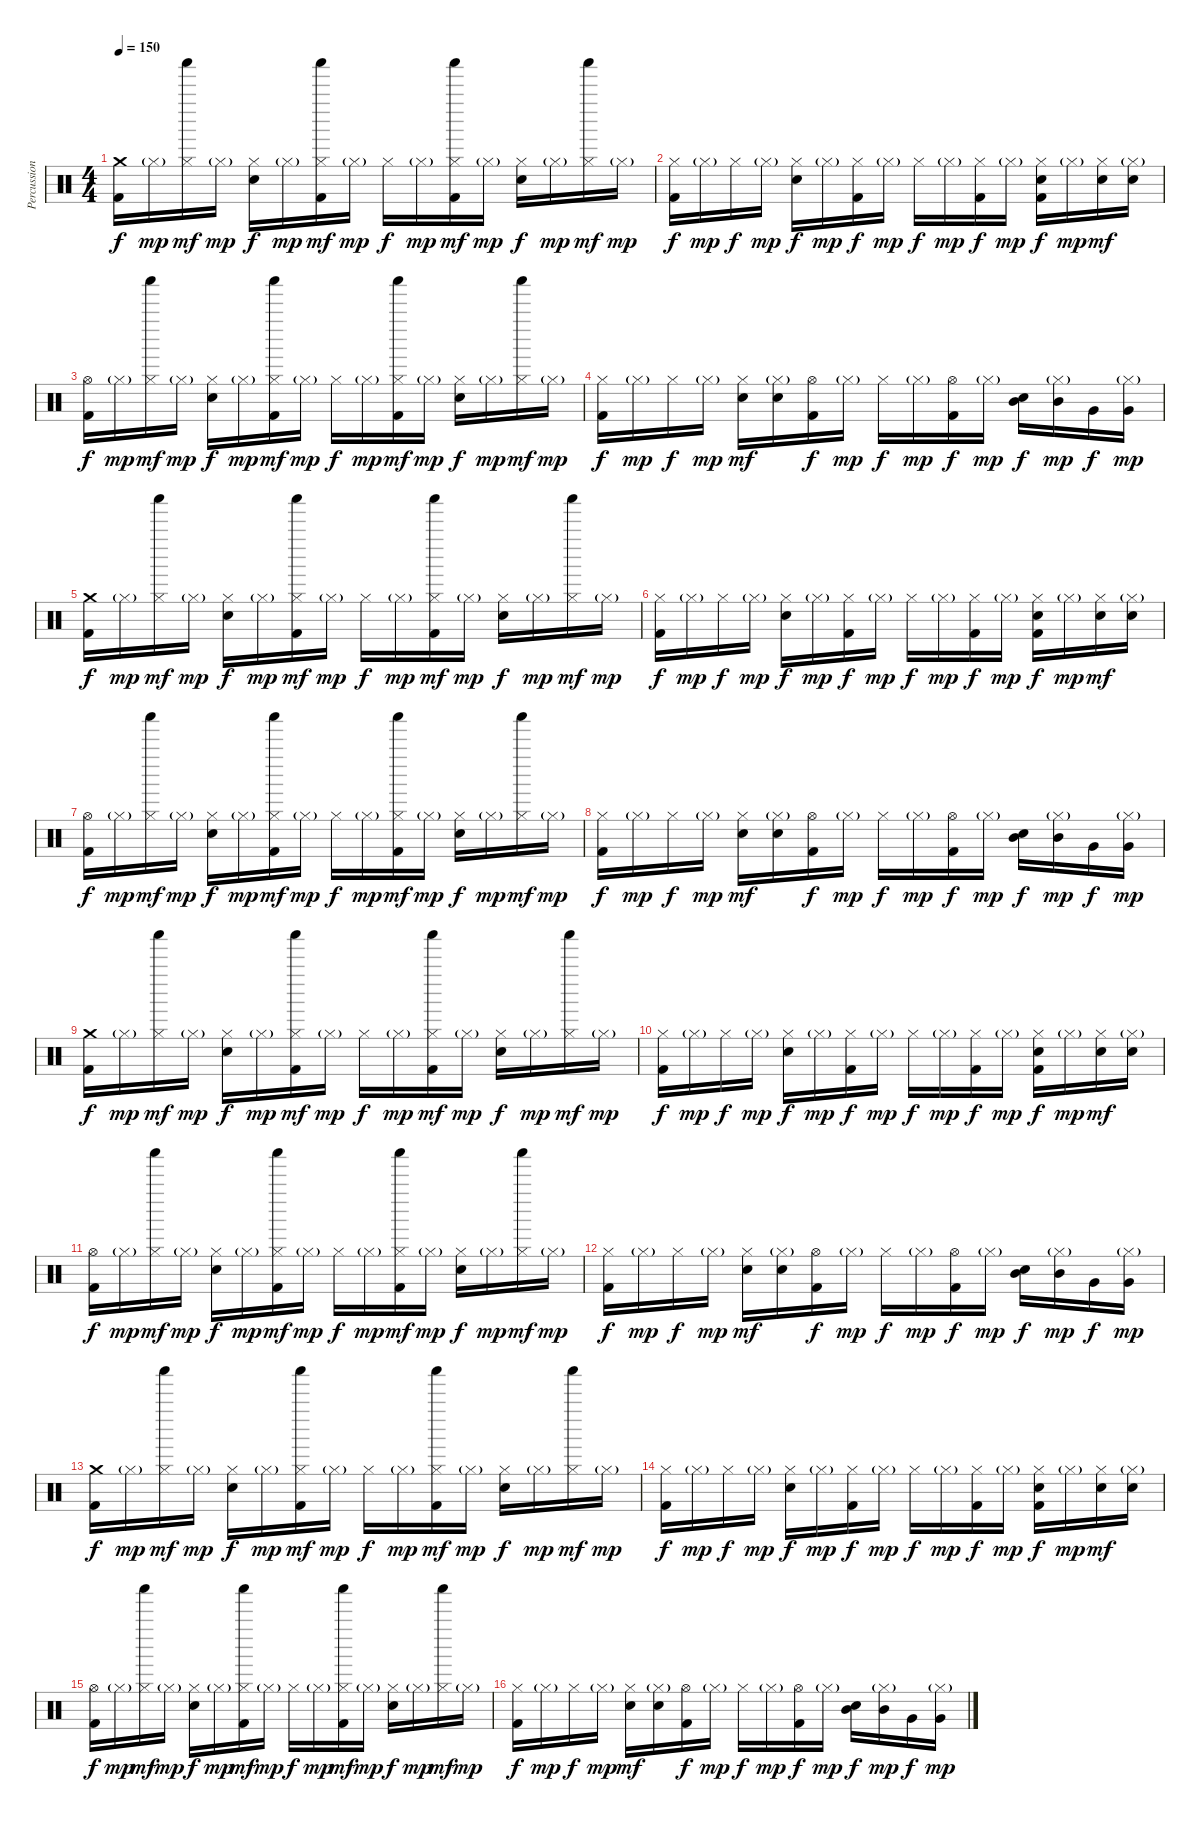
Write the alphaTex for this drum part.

\track ("Percussion" "Percussion") {instrument percussion}
\staff {score}
\articulation defaults
\ts (4 4)
\tempo 150
\clef neutral
\ks c
("Crash medium (hit)" "Kick (hit) 2").16{dy f} "Hi-Hat (closed)"{g}.16{dy mp} ("Hi-Hat (closed)" "Shaker (hit)").16{dy mf} "Hi-Hat (closed)"{g}.16{dy mp} ("Hi-Hat (closed)" "Electric Snare (hit)").16{dy f} "Hi-Hat (closed)"{g}.16{dy mp} ("Hi-Hat (closed)" "Shaker (hit)" "Kick (hit) 2").16{dy mf} "Hi-Hat (closed)"{g}.16{dy mp} "Hi-Hat (closed)".16{dy f} "Hi-Hat (closed)"{g}.16{dy mp} ("Hi-Hat (closed)" "Shaker (hit)" "Kick (hit) 2").16{dy mf} "Hi-Hat (closed)"{g}.16{dy mp} ("Hi-Hat (closed)" "Electric Snare (hit)").16{dy f} "Hi-Hat (closed)"{g}.16{dy mp} ("Hi-Hat (closed)" "Shaker (hit)").16{dy mf} "Hi-Hat (closed)"{g}.16{dy mp} |
("Hi-Hat (closed)" "Kick (hit) 2").16{dy f} "Hi-Hat (closed)"{g}.16{dy mp} "Hi-Hat (closed)".16{dy f} "Hi-Hat (closed)"{g}.16{dy mp} ("Hi-Hat (closed)" "Electric Snare (hit)").16{dy f} "Hi-Hat (closed)"{g}.16{dy mp} ("Hi-Hat (closed)" "Kick (hit) 2").16{dy f} "Hi-Hat (closed)"{g}.16{dy mp} "Hi-Hat (closed)".16{dy f} "Hi-Hat (closed)"{g}.16{dy mp} ("Hi-Hat (closed)" "Kick (hit) 2").16{dy f} "Hi-Hat (closed)"{g}.16{dy mp} ("Hi-Hat (closed)" "Electric Snare (hit)" "Kick (hit) 2").16{dy f} "Hi-Hat (closed)"{g}.16{dy mp} ("Hi-Hat (closed)" "Electric Snare (hit)").16{dy mf} ("Hi-Hat (closed)"{g} "Electric Snare (hit)").16 |
("Hi-Hat (open)" "Kick (hit) 2").16{dy f} "Hi-Hat (closed)"{g}.16{dy mp} ("Hi-Hat (closed)" "Shaker (hit)").16{dy mf} "Hi-Hat (closed)"{g}.16{dy mp} ("Hi-Hat (closed)" "Electric Snare (hit)").16{dy f} "Hi-Hat (closed)"{g}.16{dy mp} ("Hi-Hat (closed)" "Shaker (hit)" "Kick (hit) 2").16{dy mf} "Hi-Hat (closed)"{g}.16{dy mp} "Hi-Hat (closed)".16{dy f} "Hi-Hat (closed)"{g}.16{dy mp} ("Hi-Hat (closed)" "Shaker (hit)" "Kick (hit) 2").16{dy mf} "Hi-Hat (closed)"{g}.16{dy mp} ("Hi-Hat (closed)" "Electric Snare (hit)").16{dy f} "Hi-Hat (closed)"{g}.16{dy mp} ("Hi-Hat (closed)" "Shaker (hit)").16{dy mf} "Hi-Hat (closed)"{g}.16{dy mp} |
("Hi-Hat (closed)" "Kick (hit) 2").16{dy f} "Hi-Hat (closed)"{g}.16{dy mp} "Hi-Hat (closed)".16{dy f} "Hi-Hat (closed)"{g}.16{dy mp} ("Hi-Hat (closed)" "Electric Snare (hit)").16{dy mf} ("Hi-Hat (closed)"{g} "Electric Snare (hit)").16 ("Hi-Hat (open)" "Kick (hit) 2").16{dy f} "Hi-Hat (closed)"{g}.16{dy mp} "Hi-Hat (closed)".16{dy f} "Hi-Hat (closed)"{g}.16{dy mp} ("Hi-Hat (open)" "Kick (hit) 2").16{dy f} "Hi-Hat (closed)"{g}.16{dy mp} ("Mid Tom (hit)" "Electric Snare (hit)").16{dy f} ("Hi-Hat (closed)"{g} "Mid Tom (hit)").16{dy mp} "Very Low Tom (hit)".16{dy f} ("Hi-Hat (closed)"{g} "Very Low Tom (hit)").16{dy mp} |
("Crash medium (hit)" "Kick (hit) 2").16{dy f} "Hi-Hat (closed)"{g}.16{dy mp} ("Hi-Hat (closed)" "Shaker (hit)").16{dy mf} "Hi-Hat (closed)"{g}.16{dy mp} ("Hi-Hat (closed)" "Electric Snare (hit)").16{dy f} "Hi-Hat (closed)"{g}.16{dy mp} ("Hi-Hat (closed)" "Shaker (hit)" "Kick (hit) 2").16{dy mf} "Hi-Hat (closed)"{g}.16{dy mp} "Hi-Hat (closed)".16{dy f} "Hi-Hat (closed)"{g}.16{dy mp} ("Hi-Hat (closed)" "Shaker (hit)" "Kick (hit) 2").16{dy mf} "Hi-Hat (closed)"{g}.16{dy mp} ("Hi-Hat (closed)" "Electric Snare (hit)").16{dy f} "Hi-Hat (closed)"{g}.16{dy mp} ("Hi-Hat (closed)" "Shaker (hit)").16{dy mf} "Hi-Hat (closed)"{g}.16{dy mp} |
("Hi-Hat (closed)" "Kick (hit) 2").16{dy f} "Hi-Hat (closed)"{g}.16{dy mp} "Hi-Hat (closed)".16{dy f} "Hi-Hat (closed)"{g}.16{dy mp} ("Hi-Hat (closed)" "Electric Snare (hit)").16{dy f} "Hi-Hat (closed)"{g}.16{dy mp} ("Hi-Hat (closed)" "Kick (hit) 2").16{dy f} "Hi-Hat (closed)"{g}.16{dy mp} "Hi-Hat (closed)".16{dy f} "Hi-Hat (closed)"{g}.16{dy mp} ("Hi-Hat (closed)" "Kick (hit) 2").16{dy f} "Hi-Hat (closed)"{g}.16{dy mp} ("Hi-Hat (closed)" "Electric Snare (hit)" "Kick (hit) 2").16{dy f} "Hi-Hat (closed)"{g}.16{dy mp} ("Hi-Hat (closed)" "Electric Snare (hit)").16{dy mf} ("Hi-Hat (closed)"{g} "Electric Snare (hit)").16 |
("Hi-Hat (open)" "Kick (hit) 2").16{dy f} "Hi-Hat (closed)"{g}.16{dy mp} ("Hi-Hat (closed)" "Shaker (hit)").16{dy mf} "Hi-Hat (closed)"{g}.16{dy mp} ("Hi-Hat (closed)" "Electric Snare (hit)").16{dy f} "Hi-Hat (closed)"{g}.16{dy mp} ("Hi-Hat (closed)" "Shaker (hit)" "Kick (hit) 2").16{dy mf} "Hi-Hat (closed)"{g}.16{dy mp} "Hi-Hat (closed)".16{dy f} "Hi-Hat (closed)"{g}.16{dy mp} ("Hi-Hat (closed)" "Shaker (hit)" "Kick (hit) 2").16{dy mf} "Hi-Hat (closed)"{g}.16{dy mp} ("Hi-Hat (closed)" "Electric Snare (hit)").16{dy f} "Hi-Hat (closed)"{g}.16{dy mp} ("Hi-Hat (closed)" "Shaker (hit)").16{dy mf} "Hi-Hat (closed)"{g}.16{dy mp} |
("Hi-Hat (closed)" "Kick (hit) 2").16{dy f} "Hi-Hat (closed)"{g}.16{dy mp} "Hi-Hat (closed)".16{dy f} "Hi-Hat (closed)"{g}.16{dy mp} ("Hi-Hat (closed)" "Electric Snare (hit)").16{dy mf} ("Hi-Hat (closed)"{g} "Electric Snare (hit)").16 ("Hi-Hat (open)" "Kick (hit) 2").16{dy f} "Hi-Hat (closed)"{g}.16{dy mp} "Hi-Hat (closed)".16{dy f} "Hi-Hat (closed)"{g}.16{dy mp} ("Hi-Hat (open)" "Kick (hit) 2").16{dy f} "Hi-Hat (closed)"{g}.16{dy mp} ("Mid Tom (hit)" "Electric Snare (hit)").16{dy f} ("Hi-Hat (closed)"{g} "Mid Tom (hit)").16{dy mp} "Very Low Tom (hit)".16{dy f} ("Hi-Hat (closed)"{g} "Very Low Tom (hit)").16{dy mp} |
("Crash medium (hit)" "Kick (hit) 2").16{dy f} "Hi-Hat (closed)"{g}.16{dy mp} ("Hi-Hat (closed)" "Shaker (hit)").16{dy mf} "Hi-Hat (closed)"{g}.16{dy mp} ("Hi-Hat (closed)" "Electric Snare (hit)").16{dy f} "Hi-Hat (closed)"{g}.16{dy mp} ("Hi-Hat (closed)" "Shaker (hit)" "Kick (hit) 2").16{dy mf} "Hi-Hat (closed)"{g}.16{dy mp} "Hi-Hat (closed)".16{dy f} "Hi-Hat (closed)"{g}.16{dy mp} ("Hi-Hat (closed)" "Shaker (hit)" "Kick (hit) 2").16{dy mf} "Hi-Hat (closed)"{g}.16{dy mp} ("Hi-Hat (closed)" "Electric Snare (hit)").16{dy f} "Hi-Hat (closed)"{g}.16{dy mp} ("Hi-Hat (closed)" "Shaker (hit)").16{dy mf} "Hi-Hat (closed)"{g}.16{dy mp} |
("Hi-Hat (closed)" "Kick (hit) 2").16{dy f} "Hi-Hat (closed)"{g}.16{dy mp} "Hi-Hat (closed)".16{dy f} "Hi-Hat (closed)"{g}.16{dy mp} ("Hi-Hat (closed)" "Electric Snare (hit)").16{dy f} "Hi-Hat (closed)"{g}.16{dy mp} ("Hi-Hat (closed)" "Kick (hit) 2").16{dy f} "Hi-Hat (closed)"{g}.16{dy mp} "Hi-Hat (closed)".16{dy f} "Hi-Hat (closed)"{g}.16{dy mp} ("Hi-Hat (closed)" "Kick (hit) 2").16{dy f} "Hi-Hat (closed)"{g}.16{dy mp} ("Hi-Hat (closed)" "Electric Snare (hit)" "Kick (hit) 2").16{dy f} "Hi-Hat (closed)"{g}.16{dy mp} ("Hi-Hat (closed)" "Electric Snare (hit)").16{dy mf} ("Hi-Hat (closed)"{g} "Electric Snare (hit)").16 |
("Hi-Hat (open)" "Kick (hit) 2").16{dy f} "Hi-Hat (closed)"{g}.16{dy mp} ("Hi-Hat (closed)" "Shaker (hit)").16{dy mf} "Hi-Hat (closed)"{g}.16{dy mp} ("Hi-Hat (closed)" "Electric Snare (hit)").16{dy f} "Hi-Hat (closed)"{g}.16{dy mp} ("Hi-Hat (closed)" "Shaker (hit)" "Kick (hit) 2").16{dy mf} "Hi-Hat (closed)"{g}.16{dy mp} "Hi-Hat (closed)".16{dy f} "Hi-Hat (closed)"{g}.16{dy mp} ("Hi-Hat (closed)" "Shaker (hit)" "Kick (hit) 2").16{dy mf} "Hi-Hat (closed)"{g}.16{dy mp} ("Hi-Hat (closed)" "Electric Snare (hit)").16{dy f} "Hi-Hat (closed)"{g}.16{dy mp} ("Hi-Hat (closed)" "Shaker (hit)").16{dy mf} "Hi-Hat (closed)"{g}.16{dy mp} |
("Hi-Hat (closed)" "Kick (hit) 2").16{dy f} "Hi-Hat (closed)"{g}.16{dy mp} "Hi-Hat (closed)".16{dy f} "Hi-Hat (closed)"{g}.16{dy mp} ("Hi-Hat (closed)" "Electric Snare (hit)").16{dy mf} ("Hi-Hat (closed)"{g} "Electric Snare (hit)").16 ("Hi-Hat (open)" "Kick (hit) 2").16{dy f} "Hi-Hat (closed)"{g}.16{dy mp} "Hi-Hat (closed)".16{dy f} "Hi-Hat (closed)"{g}.16{dy mp} ("Hi-Hat (open)" "Kick (hit) 2").16{dy f} "Hi-Hat (closed)"{g}.16{dy mp} ("Mid Tom (hit)" "Electric Snare (hit)").16{dy f} ("Hi-Hat (closed)"{g} "Mid Tom (hit)").16{dy mp} "Very Low Tom (hit)".16{dy f} ("Hi-Hat (closed)"{g} "Very Low Tom (hit)").16{dy mp} |
("Crash medium (hit)" "Kick (hit) 2").16{dy f} "Hi-Hat (closed)"{g}.16{dy mp} ("Hi-Hat (closed)" "Shaker (hit)").16{dy mf} "Hi-Hat (closed)"{g}.16{dy mp} ("Hi-Hat (closed)" "Electric Snare (hit)").16{dy f} "Hi-Hat (closed)"{g}.16{dy mp} ("Hi-Hat (closed)" "Shaker (hit)" "Kick (hit) 2").16{dy mf} "Hi-Hat (closed)"{g}.16{dy mp} "Hi-Hat (closed)".16{dy f} "Hi-Hat (closed)"{g}.16{dy mp} ("Hi-Hat (closed)" "Shaker (hit)" "Kick (hit) 2").16{dy mf} "Hi-Hat (closed)"{g}.16{dy mp} ("Hi-Hat (closed)" "Electric Snare (hit)").16{dy f} "Hi-Hat (closed)"{g}.16{dy mp} ("Hi-Hat (closed)" "Shaker (hit)").16{dy mf} "Hi-Hat (closed)"{g}.16{dy mp} |
("Hi-Hat (closed)" "Kick (hit) 2").16{dy f} "Hi-Hat (closed)"{g}.16{dy mp} "Hi-Hat (closed)".16{dy f} "Hi-Hat (closed)"{g}.16{dy mp} ("Hi-Hat (closed)" "Electric Snare (hit)").16{dy f} "Hi-Hat (closed)"{g}.16{dy mp} ("Hi-Hat (closed)" "Kick (hit) 2").16{dy f} "Hi-Hat (closed)"{g}.16{dy mp} "Hi-Hat (closed)".16{dy f} "Hi-Hat (closed)"{g}.16{dy mp} ("Hi-Hat (closed)" "Kick (hit) 2").16{dy f} "Hi-Hat (closed)"{g}.16{dy mp} ("Hi-Hat (closed)" "Electric Snare (hit)" "Kick (hit) 2").16{dy f} "Hi-Hat (closed)"{g}.16{dy mp} ("Hi-Hat (closed)" "Electric Snare (hit)").16{dy mf} ("Hi-Hat (closed)"{g} "Electric Snare (hit)").16 |
("Hi-Hat (open)" "Kick (hit) 2").16{dy f} "Hi-Hat (closed)"{g}.16{dy mp} ("Hi-Hat (closed)" "Shaker (hit)").16{dy mf} "Hi-Hat (closed)"{g}.16{dy mp} ("Hi-Hat (closed)" "Electric Snare (hit)").16{dy f} "Hi-Hat (closed)"{g}.16{dy mp} ("Hi-Hat (closed)" "Shaker (hit)" "Kick (hit) 2").16{dy mf} "Hi-Hat (closed)"{g}.16{dy mp} "Hi-Hat (closed)".16{dy f} "Hi-Hat (closed)"{g}.16{dy mp} ("Hi-Hat (closed)" "Shaker (hit)" "Kick (hit) 2").16{dy mf} "Hi-Hat (closed)"{g}.16{dy mp} ("Hi-Hat (closed)" "Electric Snare (hit)").16{dy f} "Hi-Hat (closed)"{g}.16{dy mp} ("Hi-Hat (closed)" "Shaker (hit)").16{dy mf} "Hi-Hat (closed)"{g}.16{dy mp} |
("Hi-Hat (closed)" "Kick (hit) 2").16{dy f} "Hi-Hat (closed)"{g}.16{dy mp} "Hi-Hat (closed)".16{dy f} "Hi-Hat (closed)"{g}.16{dy mp} ("Hi-Hat (closed)" "Electric Snare (hit)").16{dy mf} ("Hi-Hat (closed)"{g} "Electric Snare (hit)").16 ("Hi-Hat (open)" "Kick (hit) 2").16{dy f} "Hi-Hat (closed)"{g}.16{dy mp} "Hi-Hat (closed)".16{dy f} "Hi-Hat (closed)"{g}.16{dy mp} ("Hi-Hat (open)" "Kick (hit) 2").16{dy f} "Hi-Hat (closed)"{g}.16{dy mp} ("Mid Tom (hit)" "Electric Snare (hit)").16{dy f} ("Hi-Hat (closed)"{g} "Mid Tom (hit)").16{dy mp} "Very Low Tom (hit)".16{dy f} ("Hi-Hat (closed)"{g} "Very Low Tom (hit)").16{dy mp}
